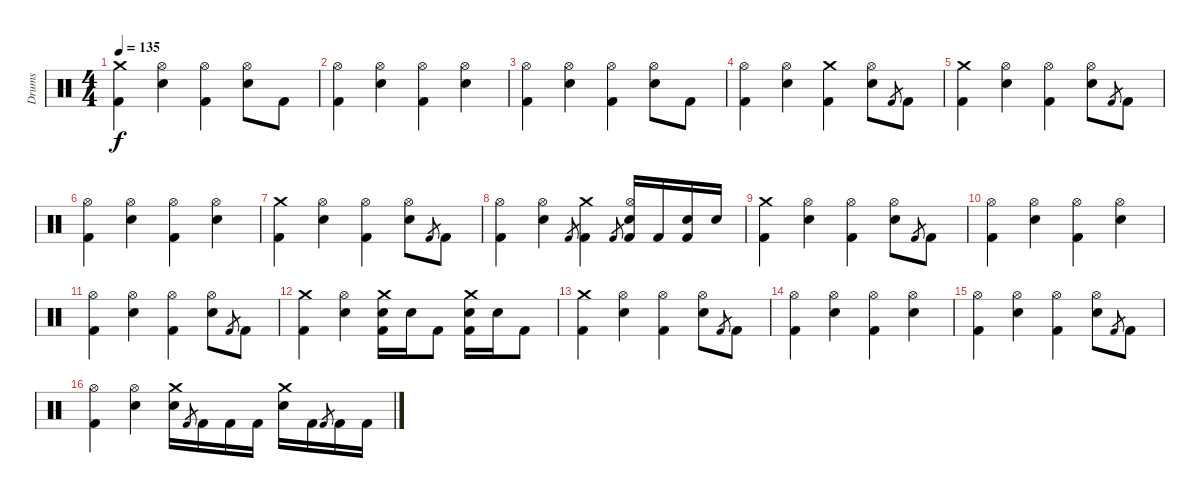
\track ("Drums" "Drums") {instrument percussion}
\staff {score}
\articulation defaults
\ts (4 4)
\tempo 135
\clef neutral
\ks c
("Crash medium (hit)" "Kick (hit) 2").4{dy f} ("Hi-Hat (open)" "Snare (hit) 2").4 ("Hi-Hat (open)" "Kick (hit) 2").4 ("Hi-Hat (open)" "Snare (hit) 2").8 "Kick (hit) 2".8 |
("Hi-Hat (open)" "Kick (hit) 2").4 ("Hi-Hat (open)" "Snare (hit) 2").4 ("Hi-Hat (open)" "Kick (hit) 2").4 ("Hi-Hat (open)" "Snare (hit) 2").4 |
("Hi-Hat (open)" "Kick (hit) 2").4 ("Hi-Hat (open)" "Snare (hit) 2").4 ("Hi-Hat (open)" "Kick (hit) 2").4 ("Hi-Hat (open)" "Snare (hit) 2").8 "Kick (hit) 2".8 |
("Hi-Hat (open)" "Kick (hit) 2").4 ("Hi-Hat (open)" "Snare (hit) 2").4 ("Crash medium (hit)" "Kick (hit) 2").4 ("Hi-Hat (open)" "Snare (hit) 2").8 "Kick (hit) 2".8{gr} "Kick (hit) 2".8 |
("Crash medium (hit)" "Kick (hit) 2").4 ("Hi-Hat (open)" "Snare (hit) 2").4 ("Hi-Hat (open)" "Kick (hit) 2").4 ("Hi-Hat (open)" "Snare (hit) 2").8 "Kick (hit) 2".8{gr} "Kick (hit) 2".8 |
("Hi-Hat (open)" "Kick (hit) 2").4 ("Hi-Hat (open)" "Snare (hit) 2").4 ("Hi-Hat (open)" "Kick (hit) 2").4 ("Hi-Hat (open)" "Snare (hit) 2").4 |
("Crash medium (hit)" "Kick (hit) 2").4 ("Hi-Hat (open)" "Snare (hit) 2").4 ("Hi-Hat (open)" "Kick (hit) 2").4 ("Hi-Hat (open)" "Snare (hit) 2").8 "Kick (hit) 2".8{gr} "Kick (hit) 2".8 |
("Hi-Hat (open)" "Kick (hit) 2").4 ("Hi-Hat (open)" "Snare (hit) 2").4 "Kick (hit) 2".8{gr} ("Crash medium (hit)" "Kick (hit) 2").4 "Kick (hit) 2".8{gr} ("Hi-Hat (open)" "Snare (hit) 2" "Kick (hit) 2").16 "Kick (hit) 2".16 ("Snare (hit) 2" "Kick (hit) 2").16 "Snare (hit) 2".16 |
("Crash medium (hit)" "Kick (hit) 2").4 ("Hi-Hat (open)" "Snare (hit) 2").4 ("Hi-Hat (open)" "Kick (hit) 2").4 ("Hi-Hat (open)" "Snare (hit) 2").8 "Kick (hit) 2".8{gr} "Kick (hit) 2".8 |
("Hi-Hat (open)" "Kick (hit) 2").4 ("Hi-Hat (open)" "Snare (hit) 2").4 ("Hi-Hat (open)" "Kick (hit) 2").4 ("Hi-Hat (open)" "Snare (hit) 2").4 |
("Hi-Hat (open)" "Kick (hit) 2").4 ("Hi-Hat (open)" "Snare (hit) 2").4 ("Hi-Hat (open)" "Kick (hit) 2").4 ("Hi-Hat (open)" "Snare (hit) 2").8 "Kick (hit) 2".8{gr} "Kick (hit) 2".8 |
("Crash medium (hit)" "Kick (hit) 2").4 ("Hi-Hat (open)" "Snare (hit) 2").4 ("Crash medium (hit)" "Snare (hit) 2" "Kick (hit) 2").16 "Snare (hit) 2".16 "Kick (hit) 2".8 ("Crash medium (hit)" "Snare (hit) 2" "Kick (hit) 2").16 "Snare (hit) 2".16 "Kick (hit) 2".8 |
("Crash medium (hit)" "Kick (hit) 2").4 ("Hi-Hat (open)" "Snare (hit) 2").4 ("Hi-Hat (open)" "Kick (hit) 2").4 ("Hi-Hat (open)" "Snare (hit) 2").8 "Kick (hit) 2".8{gr} "Kick (hit) 2".8 |
("Hi-Hat (open)" "Kick (hit) 2").4 ("Hi-Hat (open)" "Snare (hit) 2").4 ("Hi-Hat (open)" "Kick (hit) 2").4 ("Hi-Hat (open)" "Snare (hit) 2").4 |
("Hi-Hat (open)" "Kick (hit) 2").4 ("Hi-Hat (open)" "Snare (hit) 2").4 ("Hi-Hat (open)" "Kick (hit) 2").4 ("Hi-Hat (open)" "Snare (hit) 2").8 "Kick (hit) 2".8{gr} "Kick (hit) 2".8 |
("Hi-Hat (open)" "Kick (hit) 2").4 ("Hi-Hat (open)" "Snare (hit) 2").4 ("Crash medium (hit)" "Snare (hit) 2").16 "Kick (hit) 2".8{gr} "Kick (hit) 2".16 "Kick (hit) 2".16 "Kick (hit) 2".16 ("Crash medium (hit)" "Snare (hit) 2").16 "Kick (hit) 2".16 "Kick (hit) 2".8{gr} "Kick (hit) 2".16 "Kick (hit) 2".16
